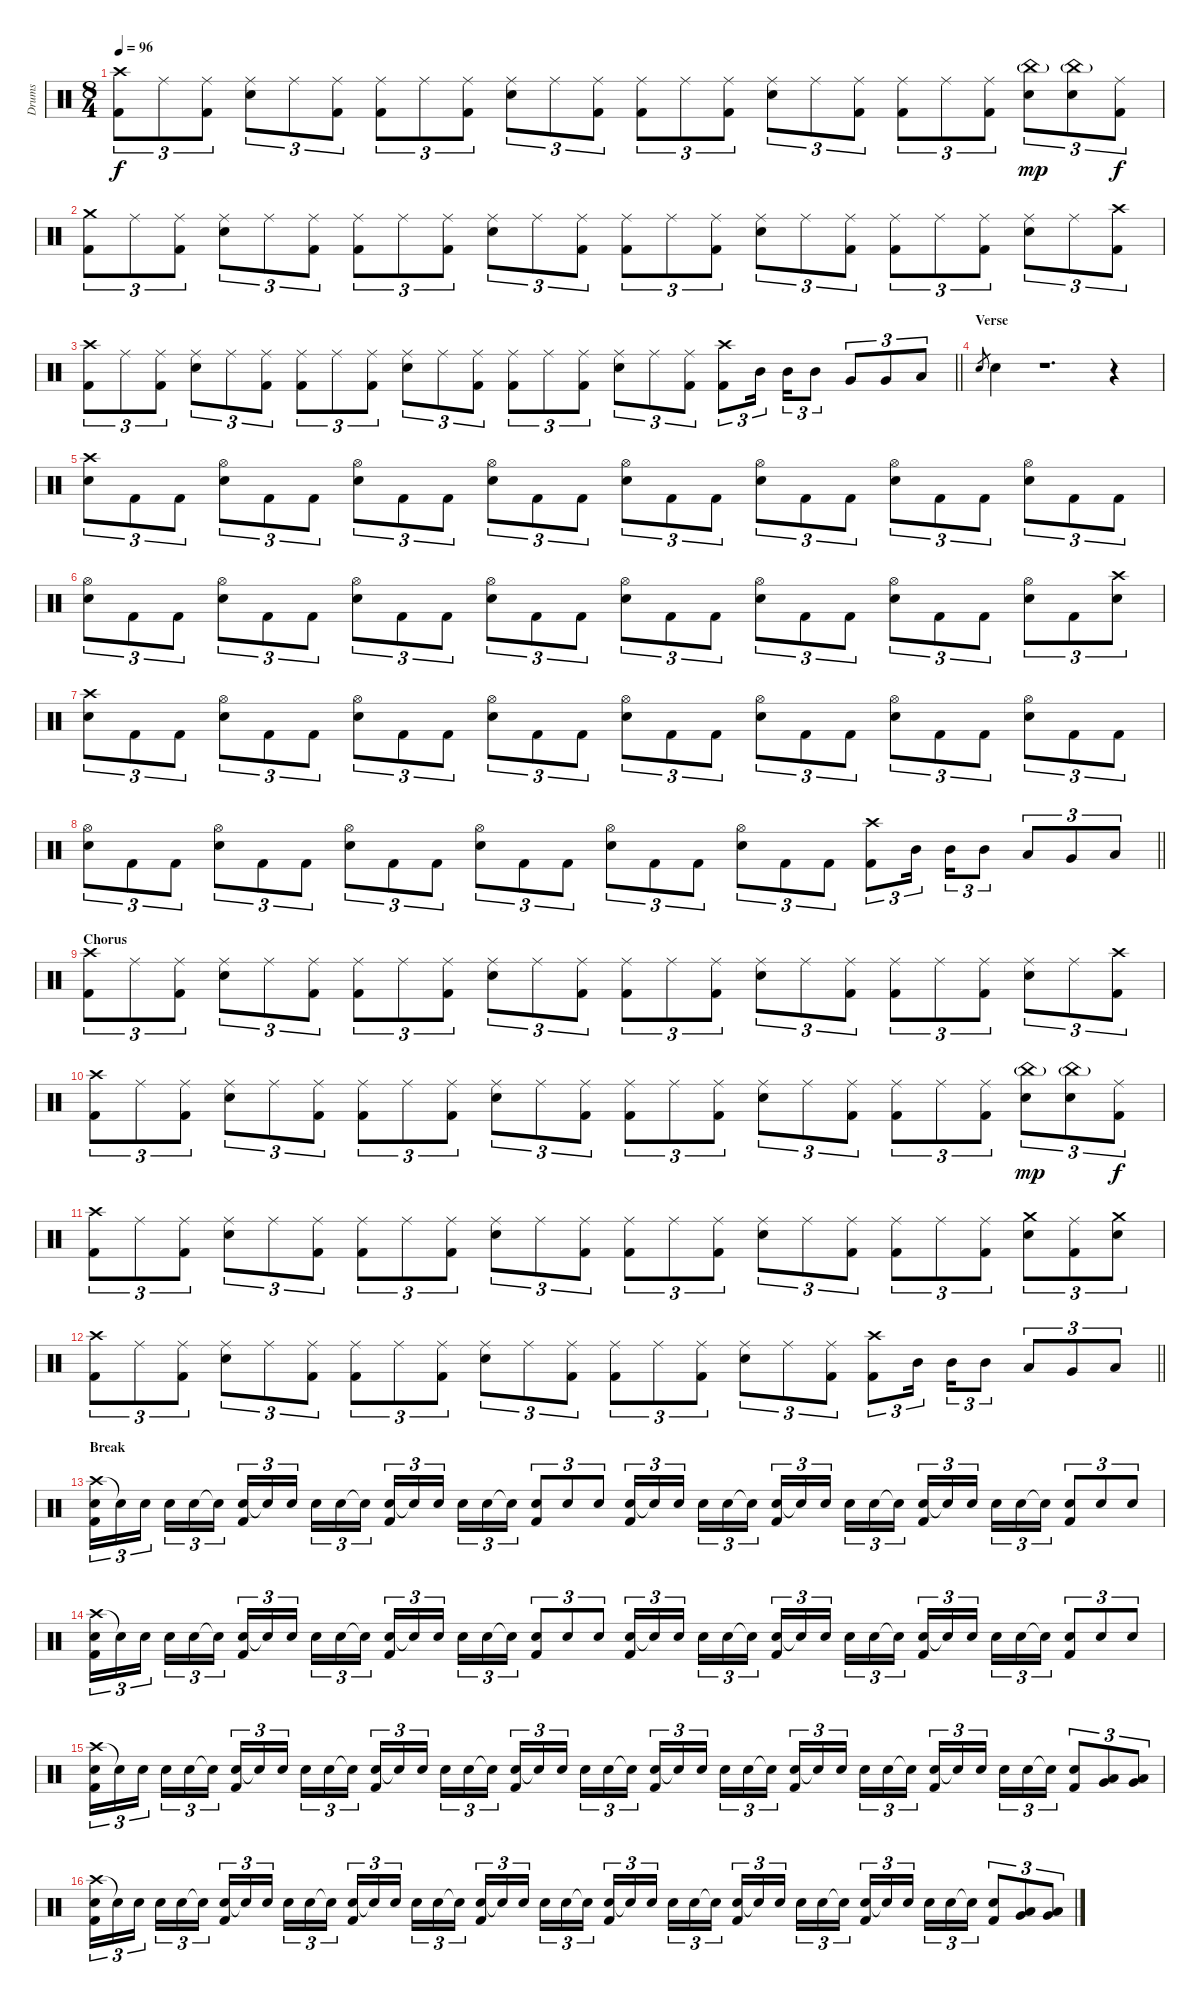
\track ("Drums" "Drums") {instrument percussion}
\staff {score}
\articulation defaults
\ts (8 4)
\tempo 96
\clef neutral
\ks c
("Crash high (hit)" "Kick (hit) 2").8{tu (3 2) dy f} "Ride (middle)".8{tu (3 2)} ("Ride (middle)" "Kick (hit) 2").8{tu (3 2)} ("Ride (middle)" "Snare (hit) 2").8{tu (3 2)} "Ride (middle)".8{tu (3 2)} ("Ride (middle)" "Kick (hit) 2").8{tu (3 2)} ("Ride (middle)" "Kick (hit) 2").8{tu (3 2)} "Ride (middle)".8{tu (3 2)} ("Ride (middle)" "Kick (hit) 2").8{tu (3 2)} ("Ride (middle)" "Snare (hit) 2").8{tu (3 2)} "Ride (middle)".8{tu (3 2)} ("Ride (middle)" "Kick (hit) 2").8{tu (3 2)} ("Ride (middle)" "Kick (hit) 2").8{tu (3 2)} "Ride (middle)".8{tu (3 2)} ("Ride (middle)" "Kick (hit) 2").8{tu (3 2)} ("Ride (middle)" "Snare (hit) 2").8{tu (3 2)} "Ride (middle)".8{tu (3 2)} ("Ride (middle)" "Kick (hit) 2").8{tu (3 2)} ("Ride (middle)" "Kick (hit) 2").8{tu (3 2)} "Ride (middle)".8{tu (3 2)} ("Ride (middle)" "Kick (hit) 2").8{tu (3 2)} ("China (hit)"{g} "Snare (hit) 2").8{tu (3 2) dy mp} ("China (hit)"{g} "Snare (hit) 2").8{tu (3 2)} ("Ride (middle)" "Kick (hit) 2").8{tu (3 2) dy f} |
("Crash medium (hit)" "Kick (hit) 2").8{tu (3 2)} "Ride (middle)".8{tu (3 2)} ("Ride (middle)" "Kick (hit) 2").8{tu (3 2)} ("Ride (middle)" "Snare (hit) 2").8{tu (3 2)} "Ride (middle)".8{tu (3 2)} ("Ride (middle)" "Kick (hit) 2").8{tu (3 2)} ("Ride (middle)" "Kick (hit) 2").8{tu (3 2)} "Ride (middle)".8{tu (3 2)} ("Ride (middle)" "Kick (hit) 2").8{tu (3 2)} ("Ride (middle)" "Snare (hit) 2").8{tu (3 2)} "Ride (middle)".8{tu (3 2)} ("Ride (middle)" "Kick (hit) 2").8{tu (3 2)} ("Ride (middle)" "Kick (hit) 2").8{tu (3 2)} "Ride (middle)".8{tu (3 2)} ("Ride (middle)" "Kick (hit) 2").8{tu (3 2)} ("Ride (middle)" "Snare (hit) 2").8{tu (3 2)} "Ride (middle)".8{tu (3 2)} ("Ride (middle)" "Kick (hit) 2").8{tu (3 2)} ("Ride (middle)" "Kick (hit) 2").8{tu (3 2)} "Ride (middle)".8{tu (3 2)} ("Ride (middle)" "Kick (hit) 2").8{tu (3 2)} ("Ride (middle)" "Snare (hit) 2").8{tu (3 2)} "Ride (middle)".8{tu (3 2)} ("Crash high (hit)" "Kick (hit) 2").8{tu (3 2)} |
\barLineRight lightlight
("Crash high (hit)" "Kick (hit) 2").8{tu (3 2)} "Ride (middle)".8{tu (3 2)} ("Ride (middle)" "Kick (hit) 2").8{tu (3 2)} ("Ride (middle)" "Snare (hit) 2").8{tu (3 2)} "Ride (middle)".8{tu (3 2)} ("Ride (middle)" "Kick (hit) 2").8{tu (3 2)} ("Ride (middle)" "Kick (hit) 2").8{tu (3 2)} "Ride (middle)".8{tu (3 2)} ("Ride (middle)" "Kick (hit) 2").8{tu (3 2)} ("Ride (middle)" "Snare (hit) 2").8{tu (3 2)} "Ride (middle)".8{tu (3 2)} ("Ride (middle)" "Kick (hit) 2").8{tu (3 2)} ("Ride (middle)" "Kick (hit) 2").8{tu (3 2)} "Ride (middle)".8{tu (3 2)} ("Ride (middle)" "Kick (hit) 2").8{tu (3 2)} ("Ride (middle)" "Snare (hit) 2").8{tu (3 2)} "Ride (middle)".8{tu (3 2)} ("Ride (middle)" "Kick (hit) 2").8{tu (3 2)} ("Crash high (hit)" "Kick (hit) 2").8{tu (3 2)} "Mid Tom (hit)".16{tu (3 2) beam splitsecondary} "Mid Tom (hit)".16{tu (3 2)} "Mid Tom (hit)".8{tu (3 2)} "Very Low Tom (hit)".8{tu (3 2)} "Very Low Tom (hit)".8{tu (3 2)} "Low Floor Tom (hit)".8{tu (3 2)} |
\section ("" "Verse")
"Snare (hit) 2".8{gr} "Snare (hit) 2".4 r.1{d} r.4 |
("Crash high (hit)" "Snare (hit) 2").8{tu (3 2)} "Kick (hit) 2".8{tu (3 2)} "Kick (hit) 2".8{tu (3 2)} ("Hi-Hat (open)" "Snare (hit) 2").8{tu (3 2)} "Kick (hit) 2".8{tu (3 2)} "Kick (hit) 2".8{tu (3 2)} ("Hi-Hat (open)" "Snare (hit) 2").8{tu (3 2)} "Kick (hit) 2".8{tu (3 2)} "Kick (hit) 2".8{tu (3 2)} ("Hi-Hat (open)" "Snare (hit) 2").8{tu (3 2)} "Kick (hit) 2".8{tu (3 2)} "Kick (hit) 2".8{tu (3 2)} ("Hi-Hat (open)" "Snare (hit) 2").8{tu (3 2)} "Kick (hit) 2".8{tu (3 2)} "Kick (hit) 2".8{tu (3 2)} ("Hi-Hat (open)" "Snare (hit) 2").8{tu (3 2)} "Kick (hit) 2".8{tu (3 2)} "Kick (hit) 2".8{tu (3 2)} ("Hi-Hat (open)" "Snare (hit) 2").8{tu (3 2)} "Kick (hit) 2".8{tu (3 2)} "Kick (hit) 2".8{tu (3 2)} ("Hi-Hat (open)" "Snare (hit) 2").8{tu (3 2)} "Kick (hit) 2".8{tu (3 2)} "Kick (hit) 2".8{tu (3 2)} |
("Hi-Hat (open)" "Snare (hit) 2").8{tu (3 2)} "Kick (hit) 2".8{tu (3 2)} "Kick (hit) 2".8{tu (3 2)} ("Hi-Hat (open)" "Snare (hit) 2").8{tu (3 2)} "Kick (hit) 2".8{tu (3 2)} "Kick (hit) 2".8{tu (3 2)} ("Hi-Hat (open)" "Snare (hit) 2").8{tu (3 2)} "Kick (hit) 2".8{tu (3 2)} "Kick (hit) 2".8{tu (3 2)} ("Hi-Hat (open)" "Snare (hit) 2").8{tu (3 2)} "Kick (hit) 2".8{tu (3 2)} "Kick (hit) 2".8{tu (3 2)} ("Hi-Hat (open)" "Snare (hit) 2").8{tu (3 2)} "Kick (hit) 2".8{tu (3 2)} "Kick (hit) 2".8{tu (3 2)} ("Hi-Hat (open)" "Snare (hit) 2").8{tu (3 2)} "Kick (hit) 2".8{tu (3 2)} "Kick (hit) 2".8{tu (3 2)} ("Hi-Hat (open)" "Snare (hit) 2").8{tu (3 2)} "Kick (hit) 2".8{tu (3 2)} "Kick (hit) 2".8{tu (3 2)} ("Hi-Hat (open)" "Snare (hit) 2").8{tu (3 2)} "Kick (hit) 2".8{tu (3 2)} ("Crash high (hit)" "Snare (hit) 2").8{tu (3 2)} |
("Crash high (hit)" "Snare (hit) 2").8{tu (3 2)} "Kick (hit) 2".8{tu (3 2)} "Kick (hit) 2".8{tu (3 2)} ("Hi-Hat (open)" "Snare (hit) 2").8{tu (3 2)} "Kick (hit) 2".8{tu (3 2)} "Kick (hit) 2".8{tu (3 2)} ("Hi-Hat (open)" "Snare (hit) 2").8{tu (3 2)} "Kick (hit) 2".8{tu (3 2)} "Kick (hit) 2".8{tu (3 2)} ("Hi-Hat (open)" "Snare (hit) 2").8{tu (3 2)} "Kick (hit) 2".8{tu (3 2)} "Kick (hit) 2".8{tu (3 2)} ("Hi-Hat (open)" "Snare (hit) 2").8{tu (3 2)} "Kick (hit) 2".8{tu (3 2)} "Kick (hit) 2".8{tu (3 2)} ("Hi-Hat (open)" "Snare (hit) 2").8{tu (3 2)} "Kick (hit) 2".8{tu (3 2)} "Kick (hit) 2".8{tu (3 2)} ("Hi-Hat (open)" "Snare (hit) 2").8{tu (3 2)} "Kick (hit) 2".8{tu (3 2)} "Kick (hit) 2".8{tu (3 2)} ("Hi-Hat (open)" "Snare (hit) 2").8{tu (3 2)} "Kick (hit) 2".8{tu (3 2)} "Kick (hit) 2".8{tu (3 2)} |
\barLineRight lightlight
("Hi-Hat (open)" "Snare (hit) 2").8{tu (3 2)} "Kick (hit) 2".8{tu (3 2)} "Kick (hit) 2".8{tu (3 2)} ("Hi-Hat (open)" "Snare (hit) 2").8{tu (3 2)} "Kick (hit) 2".8{tu (3 2)} "Kick (hit) 2".8{tu (3 2)} ("Hi-Hat (open)" "Snare (hit) 2").8{tu (3 2)} "Kick (hit) 2".8{tu (3 2)} "Kick (hit) 2".8{tu (3 2)} ("Hi-Hat (open)" "Snare (hit) 2").8{tu (3 2)} "Kick (hit) 2".8{tu (3 2)} "Kick (hit) 2".8{tu (3 2)} ("Hi-Hat (open)" "Snare (hit) 2").8{tu (3 2)} "Kick (hit) 2".8{tu (3 2)} "Kick (hit) 2".8{tu (3 2)} ("Hi-Hat (open)" "Snare (hit) 2").8{tu (3 2)} "Kick (hit) 2".8{tu (3 2)} "Kick (hit) 2".8{tu (3 2)} ("Crash high (hit)" "Kick (hit) 2").8{tu (3 2)} "Mid Tom (hit)".16{tu (3 2) beam splitsecondary} "Mid Tom (hit)".16{tu (3 2)} "Mid Tom (hit)".8{tu (3 2)} "Low Tom (hit)".8{tu (3 2)} "Very Low Tom (hit)".8{tu (3 2)} "Low Floor Tom (hit)".8{tu (3 2)} |
\section ("" "Chorus")
("Crash high (hit)" "Kick (hit) 2").8{tu (3 2)} "Ride (middle)".8{tu (3 2)} ("Ride (middle)" "Kick (hit) 2").8{tu (3 2)} ("Ride (middle)" "Snare (hit) 2").8{tu (3 2)} "Ride (middle)".8{tu (3 2)} ("Ride (middle)" "Kick (hit) 2").8{tu (3 2)} ("Ride (middle)" "Kick (hit) 2").8{tu (3 2)} "Ride (middle)".8{tu (3 2)} ("Ride (middle)" "Kick (hit) 2").8{tu (3 2)} ("Ride (middle)" "Snare (hit) 2").8{tu (3 2)} "Ride (middle)".8{tu (3 2)} ("Ride (middle)" "Kick (hit) 2").8{tu (3 2)} ("Ride (middle)" "Kick (hit) 2").8{tu (3 2)} "Ride (middle)".8{tu (3 2)} ("Ride (middle)" "Kick (hit) 2").8{tu (3 2)} ("Ride (middle)" "Snare (hit) 2").8{tu (3 2)} "Ride (middle)".8{tu (3 2)} ("Ride (middle)" "Kick (hit) 2").8{tu (3 2)} ("Ride (middle)" "Kick (hit) 2").8{tu (3 2)} "Ride (middle)".8{tu (3 2)} ("Ride (middle)" "Kick (hit) 2").8{tu (3 2)} ("Ride (middle)" "Snare (hit) 2").8{tu (3 2)} "Ride (middle)".8{tu (3 2)} ("Crash high (hit)" "Kick (hit) 2").8{tu (3 2)} |
("Crash high (hit)" "Kick (hit) 2").8{tu (3 2)} "Ride (middle)".8{tu (3 2)} ("Ride (middle)" "Kick (hit) 2").8{tu (3 2)} ("Ride (middle)" "Snare (hit) 2").8{tu (3 2)} "Ride (middle)".8{tu (3 2)} ("Ride (middle)" "Kick (hit) 2").8{tu (3 2)} ("Ride (middle)" "Kick (hit) 2").8{tu (3 2)} "Ride (middle)".8{tu (3 2)} ("Ride (middle)" "Kick (hit) 2").8{tu (3 2)} ("Ride (middle)" "Snare (hit) 2").8{tu (3 2)} "Ride (middle)".8{tu (3 2)} ("Ride (middle)" "Kick (hit) 2").8{tu (3 2)} ("Ride (middle)" "Kick (hit) 2").8{tu (3 2)} "Ride (middle)".8{tu (3 2)} ("Ride (middle)" "Kick (hit) 2").8{tu (3 2)} ("Ride (middle)" "Snare (hit) 2").8{tu (3 2)} "Ride (middle)".8{tu (3 2)} ("Ride (middle)" "Kick (hit) 2").8{tu (3 2)} ("Ride (middle)" "Kick (hit) 2").8{tu (3 2)} "Ride (middle)".8{tu (3 2)} ("Ride (middle)" "Kick (hit) 2").8{tu (3 2)} ("China (hit)"{g} "Snare (hit) 2").8{tu (3 2) dy mp} ("China (hit)"{g} "Snare (hit) 2").8{tu (3 2)} ("Ride (middle)" "Kick (hit) 2").8{tu (3 2) dy f} |
("Crash high (hit)" "Kick (hit) 2").8{tu (3 2)} "Ride (middle)".8{tu (3 2)} ("Ride (middle)" "Kick (hit) 2").8{tu (3 2)} ("Ride (middle)" "Snare (hit) 2").8{tu (3 2)} "Ride (middle)".8{tu (3 2)} ("Ride (middle)" "Kick (hit) 2").8{tu (3 2)} ("Ride (middle)" "Kick (hit) 2").8{tu (3 2)} "Ride (middle)".8{tu (3 2)} ("Ride (middle)" "Kick (hit) 2").8{tu (3 2)} ("Ride (middle)" "Snare (hit) 2").8{tu (3 2)} "Ride (middle)".8{tu (3 2)} ("Ride (middle)" "Kick (hit) 2").8{tu (3 2)} ("Ride (middle)" "Kick (hit) 2").8{tu (3 2)} "Ride (middle)".8{tu (3 2)} ("Ride (middle)" "Kick (hit) 2").8{tu (3 2)} ("Ride (middle)" "Snare (hit) 2").8{tu (3 2)} "Ride (middle)".8{tu (3 2)} ("Ride (middle)" "Kick (hit) 2").8{tu (3 2)} ("Ride (middle)" "Kick (hit) 2").8{tu (3 2)} "Ride (middle)".8{tu (3 2)} ("Ride (middle)" "Kick (hit) 2").8{tu (3 2)} ("Crash medium (hit)" "Snare (hit) 2").8{tu (3 2)} ("Ride (middle)" "Kick (hit) 2").8{tu (3 2)} ("Crash medium (hit)" "Snare (hit) 2").8{tu (3 2)} |
\barLineRight lightlight
("Crash high (hit)" "Kick (hit) 2").8{tu (3 2)} "Ride (middle)".8{tu (3 2)} ("Ride (middle)" "Kick (hit) 2").8{tu (3 2)} ("Ride (middle)" "Snare (hit) 2").8{tu (3 2)} "Ride (middle)".8{tu (3 2)} ("Ride (middle)" "Kick (hit) 2").8{tu (3 2)} ("Ride (middle)" "Kick (hit) 2").8{tu (3 2)} "Ride (middle)".8{tu (3 2)} ("Ride (middle)" "Kick (hit) 2").8{tu (3 2)} ("Ride (middle)" "Snare (hit) 2").8{tu (3 2)} "Ride (middle)".8{tu (3 2)} ("Ride (middle)" "Kick (hit) 2").8{tu (3 2)} ("Ride (middle)" "Kick (hit) 2").8{tu (3 2)} "Ride (middle)".8{tu (3 2)} ("Ride (middle)" "Kick (hit) 2").8{tu (3 2)} ("Ride (middle)" "Snare (hit) 2").8{tu (3 2)} "Ride (middle)".8{tu (3 2)} ("Ride (middle)" "Kick (hit) 2").8{tu (3 2)} ("Crash high (hit)" "Kick (hit) 2").8{tu (3 2)} "Mid Tom (hit)".16{tu (3 2) beam splitsecondary} "Mid Tom (hit)".16{tu (3 2)} "Mid Tom (hit)".8{tu (3 2)} "Low Tom (hit)".8{tu (3 2)} "Very Low Tom (hit)".8{tu (3 2)} "Low Floor Tom (hit)".8{tu (3 2)} |
\section ("" "Break")
("Crash high (hit)" "Snare (hit) 2" "Kick (hit) 2").16{tu (3 2)} "Snare (hit) 2"{t}.16{tu (3 2)} "Snare (hit) 2".16{tu (3 2) beam splitsecondary} "Snare (hit) 2".16{tu (3 2)} "Snare (hit) 2".16{tu (3 2)} "Snare (hit) 2"{t}.16{tu (3 2)} ("Snare (hit) 2" "Kick (hit) 2").16{tu (3 2)} "Snare (hit) 2"{t}.16{tu (3 2)} "Snare (hit) 2".16{tu (3 2) beam splitsecondary} "Snare (hit) 2".16{tu (3 2)} "Snare (hit) 2".16{tu (3 2)} "Snare (hit) 2"{t}.16{tu (3 2)} ("Snare (hit) 2" "Kick (hit) 2").16{tu (3 2)} "Snare (hit) 2"{t}.16{tu (3 2)} "Snare (hit) 2".16{tu (3 2) beam splitsecondary} "Snare (hit) 2".16{tu (3 2)} "Snare (hit) 2".16{tu (3 2)} "Snare (hit) 2"{t}.16{tu (3 2)} ("Snare (hit) 2" "Kick (hit) 2").8{tu (3 2)} "Snare (hit) 2".8{tu (3 2)} "Snare (hit) 2".8{tu (3 2)} ("Snare (hit) 2" "Kick (hit) 2").16{tu (3 2)} "Snare (hit) 2"{t}.16{tu (3 2)} "Snare (hit) 2".16{tu (3 2) beam splitsecondary} "Snare (hit) 2".16{tu (3 2)} "Snare (hit) 2".16{tu (3 2)} "Snare (hit) 2"{t}.16{tu (3 2)} ("Snare (hit) 2" "Kick (hit) 2").16{tu (3 2)} "Snare (hit) 2"{t}.16{tu (3 2)} "Snare (hit) 2".16{tu (3 2) beam splitsecondary} "Snare (hit) 2".16{tu (3 2)} "Snare (hit) 2".16{tu (3 2)} "Snare (hit) 2"{t}.16{tu (3 2)} ("Snare (hit) 2" "Kick (hit) 2").16{tu (3 2)} "Snare (hit) 2"{t}.16{tu (3 2)} "Snare (hit) 2".16{tu (3 2) beam splitsecondary} "Snare (hit) 2".16{tu (3 2)} "Snare (hit) 2".16{tu (3 2)} "Snare (hit) 2"{t}.16{tu (3 2)} ("Snare (hit) 2" "Kick (hit) 2").8{tu (3 2)} "Snare (hit) 2".8{tu (3 2)} "Snare (hit) 2".8{tu (3 2)} |
("Crash high (hit)" "Snare (hit) 2" "Kick (hit) 2").16{tu (3 2)} "Snare (hit) 2"{t}.16{tu (3 2)} "Snare (hit) 2".16{tu (3 2) beam splitsecondary} "Snare (hit) 2".16{tu (3 2)} "Snare (hit) 2".16{tu (3 2)} "Snare (hit) 2"{t}.16{tu (3 2)} ("Snare (hit) 2" "Kick (hit) 2").16{tu (3 2)} "Snare (hit) 2"{t}.16{tu (3 2)} "Snare (hit) 2".16{tu (3 2) beam splitsecondary} "Snare (hit) 2".16{tu (3 2)} "Snare (hit) 2".16{tu (3 2)} "Snare (hit) 2"{t}.16{tu (3 2)} ("Snare (hit) 2" "Kick (hit) 2").16{tu (3 2)} "Snare (hit) 2"{t}.16{tu (3 2)} "Snare (hit) 2".16{tu (3 2) beam splitsecondary} "Snare (hit) 2".16{tu (3 2)} "Snare (hit) 2".16{tu (3 2)} "Snare (hit) 2"{t}.16{tu (3 2)} ("Snare (hit) 2" "Kick (hit) 2").8{tu (3 2)} "Snare (hit) 2".8{tu (3 2)} "Snare (hit) 2".8{tu (3 2)} ("Snare (hit) 2" "Kick (hit) 2").16{tu (3 2)} "Snare (hit) 2"{t}.16{tu (3 2)} "Snare (hit) 2".16{tu (3 2) beam splitsecondary} "Snare (hit) 2".16{tu (3 2)} "Snare (hit) 2".16{tu (3 2)} "Snare (hit) 2"{t}.16{tu (3 2)} ("Snare (hit) 2" "Kick (hit) 2").16{tu (3 2)} "Snare (hit) 2"{t}.16{tu (3 2)} "Snare (hit) 2".16{tu (3 2) beam splitsecondary} "Snare (hit) 2".16{tu (3 2)} "Snare (hit) 2".16{tu (3 2)} "Snare (hit) 2"{t}.16{tu (3 2)} ("Snare (hit) 2" "Kick (hit) 2").16{tu (3 2)} "Snare (hit) 2"{t}.16{tu (3 2)} "Snare (hit) 2".16{tu (3 2) beam splitsecondary} "Snare (hit) 2".16{tu (3 2)} "Snare (hit) 2".16{tu (3 2)} "Snare (hit) 2"{t}.16{tu (3 2)} ("Snare (hit) 2" "Kick (hit) 2").8{tu (3 2)} "Snare (hit) 2".8{tu (3 2)} "Snare (hit) 2".8{tu (3 2)} |
("Crash high (hit)" "Snare (hit) 2" "Kick (hit) 2").16{tu (3 2)} "Snare (hit) 2"{t}.16{tu (3 2)} "Snare (hit) 2".16{tu (3 2) beam splitsecondary} "Snare (hit) 2".16{tu (3 2)} "Snare (hit) 2".16{tu (3 2)} "Snare (hit) 2"{t}.16{tu (3 2)} ("Snare (hit) 2" "Kick (hit) 2").16{tu (3 2)} "Snare (hit) 2"{t}.16{tu (3 2)} "Snare (hit) 2".16{tu (3 2) beam splitsecondary} "Snare (hit) 2".16{tu (3 2)} "Snare (hit) 2".16{tu (3 2)} "Snare (hit) 2"{t}.16{tu (3 2)} ("Snare (hit) 2" "Kick (hit) 2").16{tu (3 2)} "Snare (hit) 2"{t}.16{tu (3 2)} "Snare (hit) 2".16{tu (3 2) beam splitsecondary} "Snare (hit) 2".16{tu (3 2)} "Snare (hit) 2".16{tu (3 2)} "Snare (hit) 2"{t}.16{tu (3 2)} ("Snare (hit) 2" "Kick (hit) 2").16{tu (3 2)} "Snare (hit) 2"{t}.16{tu (3 2)} "Snare (hit) 2".16{tu (3 2) beam splitsecondary} "Snare (hit) 2".16{tu (3 2)} "Snare (hit) 2".16{tu (3 2)} "Snare (hit) 2"{t}.16{tu (3 2)} ("Snare (hit) 2" "Kick (hit) 2").16{tu (3 2)} "Snare (hit) 2"{t}.16{tu (3 2)} "Snare (hit) 2".16{tu (3 2) beam splitsecondary} "Snare (hit) 2".16{tu (3 2)} "Snare (hit) 2".16{tu (3 2)} "Snare (hit) 2"{t}.16{tu (3 2)} ("Snare (hit) 2" "Kick (hit) 2").16{tu (3 2)} "Snare (hit) 2"{t}.16{tu (3 2)} "Snare (hit) 2".16{tu (3 2) beam splitsecondary} "Snare (hit) 2".16{tu (3 2)} "Snare (hit) 2".16{tu (3 2)} "Snare (hit) 2"{t}.16{tu (3 2)} ("Snare (hit) 2" "Kick (hit) 2").16{tu (3 2)} "Snare (hit) 2"{t}.16{tu (3 2)} "Snare (hit) 2".16{tu (3 2) beam splitsecondary} "Snare (hit) 2".16{tu (3 2)} "Snare (hit) 2".16{tu (3 2)} "Snare (hit) 2"{t}.16{tu (3 2)} ("Snare (hit) 2" "Kick (hit) 2").8{tu (3 2)} ("Low Tom (hit)" "Very Low Tom (hit)").8{tu (3 2)} ("Low Tom (hit)" "Very Low Tom (hit)").8{tu (3 2)} |
("Crash high (hit)" "Snare (hit) 2" "Kick (hit) 2").16{tu (3 2)} "Snare (hit) 2"{t}.16{tu (3 2)} "Snare (hit) 2".16{tu (3 2) beam splitsecondary} "Snare (hit) 2".16{tu (3 2)} "Snare (hit) 2".16{tu (3 2)} "Snare (hit) 2"{t}.16{tu (3 2)} ("Snare (hit) 2" "Kick (hit) 2").16{tu (3 2)} "Snare (hit) 2"{t}.16{tu (3 2)} "Snare (hit) 2".16{tu (3 2) beam splitsecondary} "Snare (hit) 2".16{tu (3 2)} "Snare (hit) 2".16{tu (3 2)} "Snare (hit) 2"{t}.16{tu (3 2)} ("Snare (hit) 2" "Kick (hit) 2").16{tu (3 2)} "Snare (hit) 2"{t}.16{tu (3 2)} "Snare (hit) 2".16{tu (3 2) beam splitsecondary} "Snare (hit) 2".16{tu (3 2)} "Snare (hit) 2".16{tu (3 2)} "Snare (hit) 2"{t}.16{tu (3 2)} ("Snare (hit) 2" "Kick (hit) 2").16{tu (3 2)} "Snare (hit) 2"{t}.16{tu (3 2)} "Snare (hit) 2".16{tu (3 2) beam splitsecondary} "Snare (hit) 2".16{tu (3 2)} "Snare (hit) 2".16{tu (3 2)} "Snare (hit) 2"{t}.16{tu (3 2)} ("Snare (hit) 2" "Kick (hit) 2").16{tu (3 2)} "Snare (hit) 2"{t}.16{tu (3 2)} "Snare (hit) 2".16{tu (3 2) beam splitsecondary} "Snare (hit) 2".16{tu (3 2)} "Snare (hit) 2".16{tu (3 2)} "Snare (hit) 2"{t}.16{tu (3 2)} ("Snare (hit) 2" "Kick (hit) 2").16{tu (3 2)} "Snare (hit) 2"{t}.16{tu (3 2)} "Snare (hit) 2".16{tu (3 2) beam splitsecondary} "Snare (hit) 2".16{tu (3 2)} "Snare (hit) 2".16{tu (3 2)} "Snare (hit) 2"{t}.16{tu (3 2)} ("Snare (hit) 2" "Kick (hit) 2").16{tu (3 2)} "Snare (hit) 2"{t}.16{tu (3 2)} "Snare (hit) 2".16{tu (3 2) beam splitsecondary} "Snare (hit) 2".16{tu (3 2)} "Snare (hit) 2".16{tu (3 2)} "Snare (hit) 2"{t}.16{tu (3 2)} ("Snare (hit) 2" "Kick (hit) 2").8{tu (3 2)} ("Low Tom (hit)" "Very Low Tom (hit)").8{tu (3 2)} ("Low Tom (hit)" "Very Low Tom (hit)").8{tu (3 2)}
